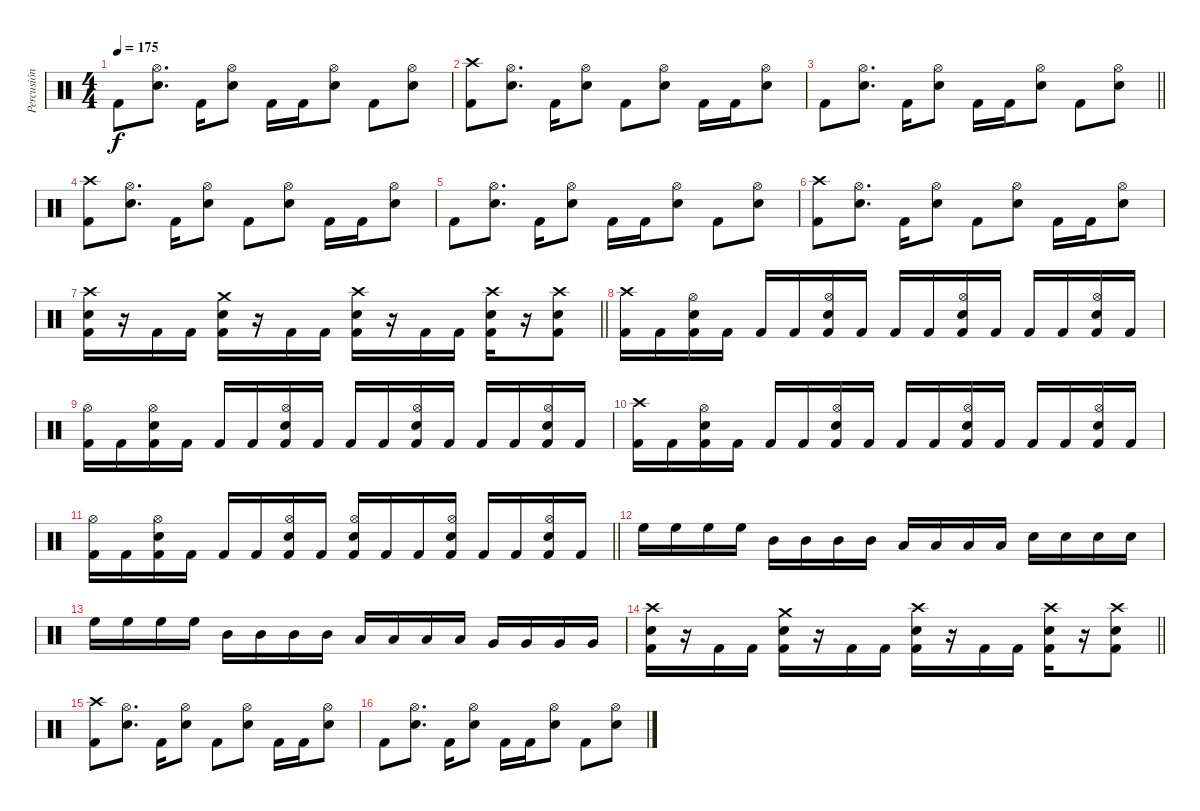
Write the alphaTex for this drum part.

\track ("Percusión" "Percusión") {instrument percussion}
\staff {score}
\articulation defaults
\ts (4 4)
\tempo 175
\clef neutral
\ks c "Kick (hit) 2".8{dy f}
("Hi-Hat (open)" "Electric Snare (hit)").8{d} "Kick (hit) 2".16 ("Hi-Hat (open)" "Electric Snare (hit)").8 "Kick (hit) 2".16 "Kick (hit) 2".16 ("Hi-Hat (open)" "Electric Snare (hit)").8 "Kick (hit) 2".8 ("Hi-Hat (open)" "Electric Snare (hit)").8 |
("Crash high (hit)" "Kick (hit) 2").8 ("Hi-Hat (open)" "Electric Snare (hit)").8{d} "Kick (hit) 2".16 ("Hi-Hat (open)" "Electric Snare (hit)").8 "Kick (hit) 2".8 ("Hi-Hat (open)" "Electric Snare (hit)").8 "Kick (hit) 2".16 "Kick (hit) 2".16 ("Hi-Hat (open)" "Electric Snare (hit)").8 |
\barLineRight lightlight "Kick (hit) 2".8
("Hi-Hat (open)" "Electric Snare (hit)").8{d} "Kick (hit) 2".16 ("Hi-Hat (open)" "Electric Snare (hit)").8 "Kick (hit) 2".16 "Kick (hit) 2".16 ("Hi-Hat (open)" "Electric Snare (hit)").8 "Kick (hit) 2".8 ("Hi-Hat (open)" "Electric Snare (hit)").8 |
("Crash high (hit)" "Kick (hit) 2").8 ("Hi-Hat (open)" "Electric Snare (hit)").8{d} "Kick (hit) 2".16 ("Hi-Hat (open)" "Electric Snare (hit)").8 "Kick (hit) 2".8 ("Hi-Hat (open)" "Electric Snare (hit)").8 "Kick (hit) 2".16 "Kick (hit) 2".16 ("Hi-Hat (open)" "Electric Snare (hit)").8 |
"Kick (hit) 2".8 ("Hi-Hat (open)" "Electric Snare (hit)").8{d} "Kick (hit) 2".16 ("Hi-Hat (open)" "Electric Snare (hit)").8 "Kick (hit) 2".16 "Kick (hit) 2".16 ("Hi-Hat (open)" "Electric Snare (hit)").8 "Kick (hit) 2".8 ("Hi-Hat (open)" "Electric Snare (hit)").8 |
("Crash high (hit)" "Kick (hit) 2").8 ("Hi-Hat (open)" "Electric Snare (hit)").8{d} "Kick (hit) 2".16 ("Hi-Hat (open)" "Electric Snare (hit)").8 "Kick (hit) 2".8 ("Hi-Hat (open)" "Electric Snare (hit)").8 "Kick (hit) 2".16 "Kick (hit) 2".16 ("Hi-Hat (open)" "Electric Snare (hit)").8 |
\barLineRight lightlight
("Crash high (hit)" "Electric Snare (hit)" "Kick (hit) 2").16 r.16 "Kick (hit) 2".16 "Kick (hit) 2".16 ("Crash medium (hit)" "Electric Snare (hit)" "Kick (hit) 2").16 r.16 "Kick (hit) 2".16 "Kick (hit) 2".16 ("Crash high (hit)" "Electric Snare (hit)" "Kick (hit) 2").16 r.16 "Kick (hit) 2".16 "Kick (hit) 2".16 ("Crash high (hit)" "Electric Snare (hit)" "Kick (hit) 2").16 r.16 ("Crash high (hit)" "Electric Snare (hit)" "Kick (hit) 2").8 |
("Crash high (hit)" "Kick (hit) 2").16 "Kick (hit) 2".16 ("Hi-Hat (open)" "Electric Snare (hit)" "Kick (hit) 2").16 "Kick (hit) 2".16 "Kick (hit) 2".16 "Kick (hit) 2".16 ("Hi-Hat (open)" "Electric Snare (hit)" "Kick (hit) 2").16 "Kick (hit) 2".16 "Kick (hit) 2".16 "Kick (hit) 2".16 ("Hi-Hat (open)" "Electric Snare (hit)" "Kick (hit) 2").16 "Kick (hit) 2".16 "Kick (hit) 2".16 "Kick (hit) 2".16 ("Hi-Hat (open)" "Electric Snare (hit)" "Kick (hit) 2").16 "Kick (hit) 2".16 |
("Hi-Hat (open)" "Kick (hit) 2").16 "Kick (hit) 2".16 ("Hi-Hat (open)" "Electric Snare (hit)" "Kick (hit) 2").16 "Kick (hit) 2".16 "Kick (hit) 2".16 "Kick (hit) 2".16 ("Hi-Hat (open)" "Electric Snare (hit)" "Kick (hit) 2").16 "Kick (hit) 2".16 "Kick (hit) 2".16 "Kick (hit) 2".16 ("Hi-Hat (open)" "Electric Snare (hit)" "Kick (hit) 2").16 "Kick (hit) 2".16 "Kick (hit) 2".16 "Kick (hit) 2".16 ("Hi-Hat (open)" "Electric Snare (hit)" "Kick (hit) 2").16 "Kick (hit) 2".16 |
("Crash high (hit)" "Kick (hit) 2").16 "Kick (hit) 2".16 ("Hi-Hat (open)" "Electric Snare (hit)" "Kick (hit) 2").16 "Kick (hit) 2".16 "Kick (hit) 2".16 "Kick (hit) 2".16 ("Hi-Hat (open)" "Electric Snare (hit)" "Kick (hit) 2").16 "Kick (hit) 2".16 "Kick (hit) 2".16 "Kick (hit) 2".16 ("Hi-Hat (open)" "Electric Snare (hit)" "Kick (hit) 2").16 "Kick (hit) 2".16 "Kick (hit) 2".16 "Kick (hit) 2".16 ("Hi-Hat (open)" "Electric Snare (hit)" "Kick (hit) 2").16 "Kick (hit) 2".16 |
\barLineRight lightlight
("Hi-Hat (open)" "Kick (hit) 2").16 "Kick (hit) 2".16 ("Hi-Hat (open)" "Electric Snare (hit)" "Kick (hit) 2").16 "Kick (hit) 2".16 "Kick (hit) 2".16 "Kick (hit) 2".16 ("Hi-Hat (open)" "Electric Snare (hit)" "Kick (hit) 2").16 "Kick (hit) 2".16 ("Hi-Hat (open)" "Electric Snare (hit)" "Kick (hit) 2").16 "Kick (hit) 2".16 "Kick (hit) 2".16 ("Hi-Hat (open)" "Electric Snare (hit)" "Kick (hit) 2").16 "Kick (hit) 2".16 "Kick (hit) 2".16 ("Hi-Hat (open)" "Electric Snare (hit)" "Kick (hit) 2").16 "Kick (hit) 2".16 |
"High Floor Tom (hit)".16 "High Floor Tom (hit)".16 "High Floor Tom (hit)".16 "High Floor Tom (hit)".16 "Mid Tom (hit)".16 "Mid Tom (hit)".16 "Mid Tom (hit)".16 "Mid Tom (hit)".16 "Low Floor Tom (hit)".16 "Low Floor Tom (hit)".16 "Low Floor Tom (hit)".16 "Low Floor Tom (hit)".16 "Electric Snare (hit)".16 "Electric Snare (hit)".16 "Electric Snare (hit)".16 "Electric Snare (hit)".16 |
"High Floor Tom (hit)".16 "High Floor Tom (hit)".16 "High Floor Tom (hit)".16 "High Floor Tom (hit)".16 "Mid Tom (hit)".16 "Mid Tom (hit)".16 "Mid Tom (hit)".16 "Mid Tom (hit)".16 "Low Floor Tom (hit)".16 "Low Floor Tom (hit)".16 "Low Floor Tom (hit)".16 "Low Floor Tom (hit)".16 "Very Low Tom (hit)".16 "Very Low Tom (hit)".16 "Very Low Tom (hit)".16 "Very Low Tom (hit)".16 |
\barLineRight lightlight
("Crash high (hit)" "Electric Snare (hit)" "Kick (hit) 2").16 r.16 "Kick (hit) 2".16 "Kick (hit) 2".16 ("Crash medium (hit)" "Electric Snare (hit)" "Kick (hit) 2").16 r.16 "Kick (hit) 2".16 "Kick (hit) 2".16 ("Crash high (hit)" "Electric Snare (hit)" "Kick (hit) 2").16 r.16 "Kick (hit) 2".16 "Kick (hit) 2".16 ("Crash high (hit)" "Electric Snare (hit)" "Kick (hit) 2").16 r.16 ("Crash high (hit)" "Electric Snare (hit)" "Kick (hit) 2").8 |
("Crash high (hit)" "Kick (hit) 2").8 ("Hi-Hat (open)" "Electric Snare (hit)").8{d} "Kick (hit) 2".16 ("Hi-Hat (open)" "Electric Snare (hit)").8 "Kick (hit) 2".8 ("Hi-Hat (open)" "Electric Snare (hit)").8 "Kick (hit) 2".16 "Kick (hit) 2".16 ("Hi-Hat (open)" "Electric Snare (hit)").8 |
"Kick (hit) 2".8 ("Hi-Hat (open)" "Electric Snare (hit)").8{d} "Kick (hit) 2".16 ("Hi-Hat (open)" "Electric Snare (hit)").8 "Kick (hit) 2".16 "Kick (hit) 2".16 ("Hi-Hat (open)" "Electric Snare (hit)").8 "Kick (hit) 2".8 ("Hi-Hat (open)" "Electric Snare (hit)").8
